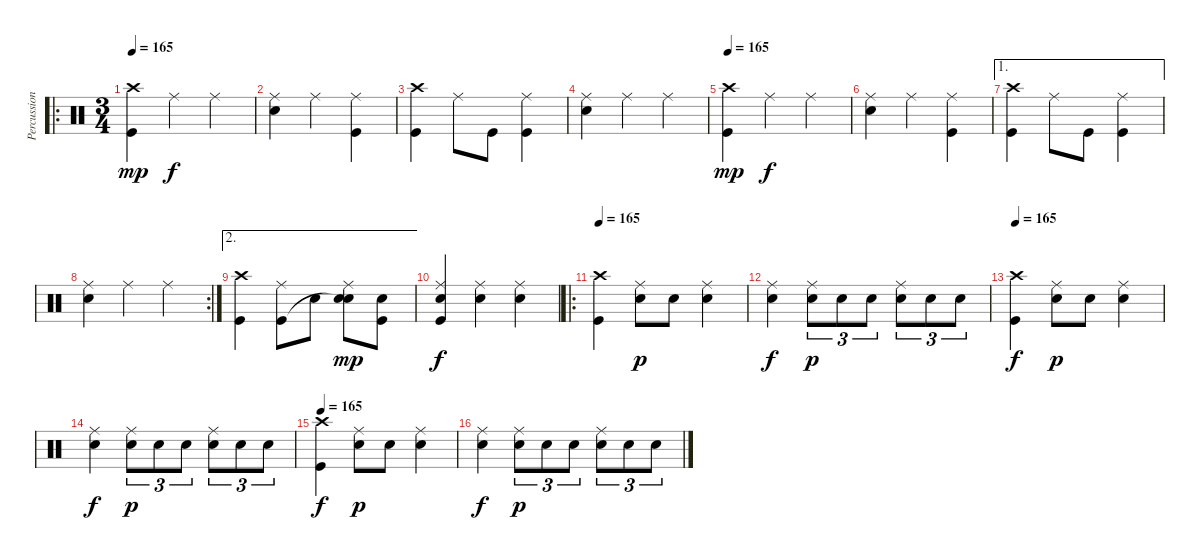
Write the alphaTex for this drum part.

\track ("Percussion" "Percussion") {instrument percussion}
\staff {score}
\articulation defaults
\ro
\ts (3 4)
\section ("" "")
\tempo 165
\clef neutral
\ks c
("Crash high (hit)" "Kick (hit)").4{dy mp} "Ride (middle)".4{dy f} "Ride (middle)".4 |
("Ride (middle)" "Electric Snare (hit)").4 "Ride (middle)".4 ("Ride (middle)" "Kick (hit)").4 |
("Crash high (hit)" "Kick (hit)").4 "Ride (middle)".8 "Kick (hit)".8 ("Ride (middle)" "Kick (hit)").4 |
("Ride (middle)" "Electric Snare (hit)").4 "Ride (middle)".4 "Ride (middle)".4 |
\tempo 165
("Crash high (hit)" "Kick (hit)").4{dy mp} "Ride (middle)".4{dy f} "Ride (middle)".4 |
("Ride (middle)" "Electric Snare (hit)").4 "Ride (middle)".4 ("Ride (middle)" "Kick (hit)").4 |
\ae 1
("Crash high (hit)" "Kick (hit)").4 "Ride (middle)".8 "Kick (hit)".8 ("Ride (middle)" "Kick (hit)").4 |
\rc 2
("Ride (middle)" "Electric Snare (hit)").4 "Ride (middle)".4 "Ride (middle)".4 |
\ae 2
("Crash high (hit)" "Kick (hit)").4 ("Ride (middle)" "Kick (hit)").8 "Electric Snare (hit)".8 ("Ride (middle)" "Snare (hit)"{t} "Snare (hit) 2").8{dy mp} ("Snare (hit) 2" "Kick (hit)").8 |
("Ride (middle)" "Electric Snare (hit)" "Kick (hit)").4{dy f} ("Ride (middle)" "Electric Snare (hit)").4 ("Ride (middle)" "Electric Snare (hit)").4 |
\ro
\section ("" "")
\tempo 165
("Crash high (hit)" "Kick (hit)").4 ("Ride (middle)" "Snare (hit) 2").8{dy p} "Snare (hit) 2".8 ("Ride (middle)" "Snare (hit) 2").4 |
("Ride (middle)" "Electric Snare (hit)").4{dy f} ("Ride (middle)" "Snare (hit) 2").8{tu (3 2) dy p} "Snare (hit) 2".8{tu (3 2)} "Snare (hit) 2".8{tu (3 2)} ("Ride (middle)" "Snare (hit) 2").8{tu (3 2)} "Snare (hit) 2".8{tu (3 2)} "Snare (hit) 2".8{tu (3 2)} |
\tempo 165
("Crash high (hit)" "Kick (hit)").4{dy f} ("Ride (middle)" "Snare (hit) 2").8{dy p} "Snare (hit) 2".8 ("Ride (middle)" "Snare (hit) 2").4 |
("Ride (middle)" "Electric Snare (hit)").4{dy f} ("Ride (middle)" "Snare (hit) 2").8{tu (3 2) dy p} "Snare (hit) 2".8{tu (3 2)} "Snare (hit) 2".8{tu (3 2)} ("Ride (middle)" "Snare (hit) 2").8{tu (3 2)} "Snare (hit) 2".8{tu (3 2)} "Snare (hit) 2".8{tu (3 2)} |
\tempo 165
("Crash high (hit)" "Kick (hit)").4{dy f} ("Ride (middle)" "Snare (hit) 2").8{dy p} "Snare (hit) 2".8 ("Ride (middle)" "Snare (hit) 2").4 |
("Ride (middle)" "Electric Snare (hit)").4{dy f} ("Ride (middle)" "Snare (hit) 2").8{tu (3 2) dy p} "Snare (hit) 2".8{tu (3 2)} "Snare (hit) 2".8{tu (3 2)} ("Ride (middle)" "Snare (hit) 2").8{tu (3 2)} "Snare (hit) 2".8{tu (3 2)} "Snare (hit) 2".8{tu (3 2)}
